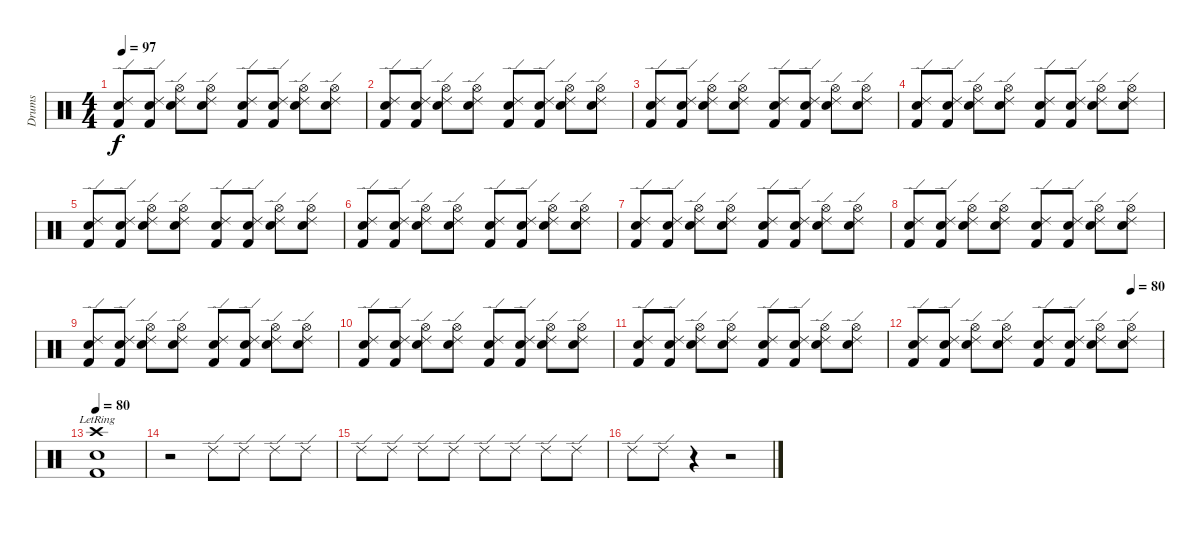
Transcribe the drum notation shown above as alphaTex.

\track ("Drums" "Drums") {instrument percussion}
\staff {score}
\articulation defaults
\ts (4 4)
\tempo 97
\clef neutral
\ks c
("Ride (edge) 2" "Snare (hit) 2" "Kick (hit) 2").8{dy f} ("Ride (edge) 2" "Snare (hit) 2" "Kick (hit) 2").8 ("Ride (edge) 2" "Hi-Hat (open)" "Electric Snare (hit)").8 ("Ride (edge) 2" "Hi-Hat (open)" "Electric Snare (hit)").8 ("Ride (edge) 2" "Snare (hit) 2" "Kick (hit) 2").8 ("Ride (edge) 2" "Snare (hit) 2" "Kick (hit) 2").8 ("Ride (edge) 2" "Hi-Hat (open)" "Electric Snare (hit)").8 ("Ride (edge) 2" "Hi-Hat (open)" "Electric Snare (hit)").8 |
("Ride (edge) 2" "Snare (hit) 2" "Kick (hit) 2").8 ("Ride (edge) 2" "Snare (hit) 2" "Kick (hit) 2").8 ("Ride (edge) 2" "Hi-Hat (open)" "Electric Snare (hit)").8 ("Ride (edge) 2" "Hi-Hat (open)" "Electric Snare (hit)").8 ("Ride (edge) 2" "Snare (hit) 2" "Kick (hit) 2").8 ("Ride (edge) 2" "Snare (hit) 2" "Kick (hit) 2").8 ("Ride (edge) 2" "Hi-Hat (open)" "Electric Snare (hit)").8 ("Ride (edge) 2" "Hi-Hat (open)" "Electric Snare (hit)").8 |
("Ride (edge) 2" "Snare (hit) 2" "Kick (hit) 2").8 ("Ride (edge) 2" "Snare (hit) 2" "Kick (hit) 2").8 ("Ride (edge) 2" "Hi-Hat (open)" "Electric Snare (hit)").8 ("Ride (edge) 2" "Hi-Hat (open)" "Electric Snare (hit)").8 ("Ride (edge) 2" "Snare (hit) 2" "Kick (hit) 2").8 ("Ride (edge) 2" "Snare (hit) 2" "Kick (hit) 2").8 ("Ride (edge) 2" "Hi-Hat (open)" "Electric Snare (hit)").8 ("Ride (edge) 2" "Hi-Hat (open)" "Electric Snare (hit)").8 |
("Ride (edge) 2" "Snare (hit) 2" "Kick (hit) 2").8 ("Ride (edge) 2" "Snare (hit) 2" "Kick (hit) 2").8 ("Ride (edge) 2" "Hi-Hat (open)" "Electric Snare (hit)").8 ("Ride (edge) 2" "Hi-Hat (open)" "Electric Snare (hit)").8 ("Ride (edge) 2" "Snare (hit) 2" "Kick (hit) 2").8 ("Ride (edge) 2" "Snare (hit) 2" "Kick (hit) 2").8 ("Ride (edge) 2" "Hi-Hat (open)" "Electric Snare (hit)").8 ("Ride (edge) 2" "Hi-Hat (open)" "Electric Snare (hit)").8 |
("Ride (edge) 2" "Snare (hit) 2" "Kick (hit) 2").8 ("Ride (edge) 2" "Snare (hit) 2" "Kick (hit) 2").8 ("Ride (edge) 2" "Hi-Hat (open)" "Electric Snare (hit)").8 ("Ride (edge) 2" "Hi-Hat (open)" "Electric Snare (hit)").8 ("Ride (edge) 2" "Snare (hit) 2" "Kick (hit) 2").8 ("Ride (edge) 2" "Snare (hit) 2" "Kick (hit) 2").8 ("Ride (edge) 2" "Hi-Hat (open)" "Electric Snare (hit)").8 ("Ride (edge) 2" "Hi-Hat (open)" "Electric Snare (hit)").8 |
("Ride (edge) 2" "Snare (hit) 2" "Kick (hit) 2").8 ("Ride (edge) 2" "Snare (hit) 2" "Kick (hit) 2").8 ("Ride (edge) 2" "Hi-Hat (open)" "Electric Snare (hit)").8 ("Ride (edge) 2" "Hi-Hat (open)" "Electric Snare (hit)").8 ("Ride (edge) 2" "Snare (hit) 2" "Kick (hit) 2").8 ("Ride (edge) 2" "Snare (hit) 2" "Kick (hit) 2").8 ("Ride (edge) 2" "Hi-Hat (open)" "Electric Snare (hit)").8 ("Ride (edge) 2" "Hi-Hat (open)" "Electric Snare (hit)").8 |
("Ride (edge) 2" "Snare (hit) 2" "Kick (hit) 2").8 ("Ride (edge) 2" "Snare (hit) 2" "Kick (hit) 2").8 ("Ride (edge) 2" "Hi-Hat (open)" "Electric Snare (hit)").8 ("Ride (edge) 2" "Hi-Hat (open)" "Electric Snare (hit)").8 ("Ride (edge) 2" "Snare (hit) 2" "Kick (hit) 2").8 ("Ride (edge) 2" "Snare (hit) 2" "Kick (hit) 2").8 ("Ride (edge) 2" "Hi-Hat (open)" "Electric Snare (hit)").8 ("Ride (edge) 2" "Hi-Hat (open)" "Electric Snare (hit)").8 |
("Ride (edge) 2" "Snare (hit) 2" "Kick (hit) 2").8 ("Ride (edge) 2" "Snare (hit) 2" "Kick (hit) 2").8 ("Ride (edge) 2" "Hi-Hat (open)" "Electric Snare (hit)").8 ("Ride (edge) 2" "Hi-Hat (open)" "Electric Snare (hit)").8 ("Ride (edge) 2" "Snare (hit) 2" "Kick (hit) 2").8 ("Ride (edge) 2" "Snare (hit) 2" "Kick (hit) 2").8 ("Ride (edge) 2" "Hi-Hat (open)" "Electric Snare (hit)").8 ("Ride (edge) 2" "Hi-Hat (open)" "Electric Snare (hit)").8 |
("Ride (edge) 2" "Snare (hit) 2" "Kick (hit) 2").8 ("Ride (edge) 2" "Snare (hit) 2" "Kick (hit) 2").8 ("Ride (edge) 2" "Hi-Hat (open)" "Electric Snare (hit)").8 ("Ride (edge) 2" "Hi-Hat (open)" "Electric Snare (hit)").8 ("Ride (edge) 2" "Snare (hit) 2" "Kick (hit) 2").8 ("Ride (edge) 2" "Snare (hit) 2" "Kick (hit) 2").8 ("Ride (edge) 2" "Hi-Hat (open)" "Electric Snare (hit)").8 ("Ride (edge) 2" "Hi-Hat (open)" "Electric Snare (hit)").8 |
("Ride (edge) 2" "Snare (hit) 2" "Kick (hit) 2").8 ("Ride (edge) 2" "Snare (hit) 2" "Kick (hit) 2").8 ("Ride (edge) 2" "Hi-Hat (open)" "Electric Snare (hit)").8 ("Ride (edge) 2" "Hi-Hat (open)" "Electric Snare (hit)").8 ("Ride (edge) 2" "Snare (hit) 2" "Kick (hit) 2").8 ("Ride (edge) 2" "Snare (hit) 2" "Kick (hit) 2").8 ("Ride (edge) 2" "Hi-Hat (open)" "Electric Snare (hit)").8 ("Ride (edge) 2" "Hi-Hat (open)" "Electric Snare (hit)").8 |
("Ride (edge) 2" "Snare (hit) 2" "Kick (hit) 2").8 ("Ride (edge) 2" "Snare (hit) 2" "Kick (hit) 2").8 ("Ride (edge) 2" "Hi-Hat (open)" "Electric Snare (hit)").8 ("Ride (edge) 2" "Hi-Hat (open)" "Electric Snare (hit)").8 ("Ride (edge) 2" "Snare (hit) 2" "Kick (hit) 2").8 ("Ride (edge) 2" "Snare (hit) 2" "Kick (hit) 2").8 ("Ride (edge) 2" "Hi-Hat (open)" "Electric Snare (hit)").8 ("Ride (edge) 2" "Hi-Hat (open)" "Electric Snare (hit)").8 |
\tempo (80 0.875)
("Ride (edge) 2" "Snare (hit) 2" "Kick (hit) 2").8 ("Ride (edge) 2" "Snare (hit) 2" "Kick (hit) 2").8 ("Ride (edge) 2" "Hi-Hat (open)" "Electric Snare (hit)").8 ("Ride (edge) 2" "Hi-Hat (open)" "Electric Snare (hit)").8 ("Ride (edge) 2" "Snare (hit) 2" "Kick (hit) 2").8 ("Ride (edge) 2" "Snare (hit) 2" "Kick (hit) 2").8 ("Ride (edge) 2" "Hi-Hat (open)" "Electric Snare (hit)").8 ("Ride (edge) 2" "Hi-Hat (open)" "Electric Snare (hit)").8 |
\tempo 80
("Crash high (hit)"{lr} "Snare (hit) 2"{lr} "Kick (hit) 2"{lr}).1 |
r.2 "Ride (edge) 2".8 "Ride (edge) 2".8 "Ride (edge) 2".8 "Ride (edge) 2".8 |
"Ride (edge) 2".8 "Ride (edge) 2".8 "Ride (edge) 2".8 "Ride (edge) 2".8 "Ride (edge) 2".8 "Ride (edge) 2".8 "Ride (edge) 2".8 "Ride (edge) 2".8 |
"Ride (edge) 2".8 "Ride (edge) 2".8 r.4 r.2
